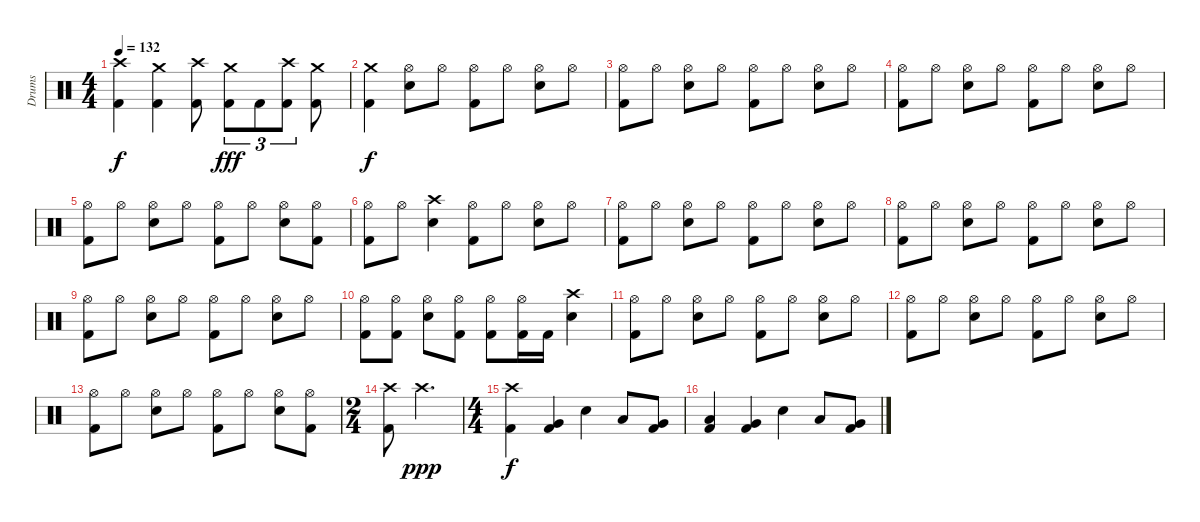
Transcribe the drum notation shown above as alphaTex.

\track ("Drums" "Drums") {instrument percussion}
\staff {score}
\articulation defaults
\ts (4 4)
\tempo 132
\clef neutral
\ks c
("Crash high (hit)" "Kick (hit) 2").4{dy f} ("Crash medium (hit)" "Kick (hit) 2").4 ("Crash high (hit)" "Kick (hit) 2").8 ("Crash medium (hit)" "Kick (hit) 2").8{tu (3 2) dy fff} "Kick (hit) 2".8{tu (3 2)} ("Crash high (hit)" "Kick (hit) 2").8{tu (3 2)} ("Crash medium (hit)" "Kick (hit) 2").8 |
("Crash medium (hit)" "Kick (hit) 2").4{dy f} ("Hi-Hat (open)" "Snare (hit) 2").8 "Hi-Hat (open)".8 ("Hi-Hat (open)" "Kick (hit) 2").8 "Hi-Hat (open)".8 ("Hi-Hat (open)" "Snare (hit) 2").8 "Hi-Hat (open)".8 |
("Hi-Hat (open)" "Kick (hit) 2").8 "Hi-Hat (open)".8 ("Hi-Hat (open)" "Snare (hit) 2").8 "Hi-Hat (open)".8 ("Hi-Hat (open)" "Kick (hit) 2").8 "Hi-Hat (open)".8 ("Hi-Hat (open)" "Snare (hit) 2").8 "Hi-Hat (open)".8 |
("Hi-Hat (open)" "Kick (hit) 2").8 "Hi-Hat (open)".8 ("Hi-Hat (open)" "Snare (hit) 2").8 "Hi-Hat (open)".8 ("Hi-Hat (open)" "Kick (hit) 2").8 "Hi-Hat (open)".8 ("Hi-Hat (open)" "Snare (hit) 2").8 "Hi-Hat (open)".8 |
("Hi-Hat (open)" "Kick (hit) 2").8 "Hi-Hat (open)".8 ("Hi-Hat (open)" "Snare (hit) 2").8 "Hi-Hat (open)".8 ("Hi-Hat (open)" "Kick (hit) 2").8 "Hi-Hat (open)".8 ("Hi-Hat (open)" "Snare (hit) 2").8 ("Hi-Hat (open)" "Kick (hit) 2").8 |
("Hi-Hat (open)" "Kick (hit) 2").8 "Hi-Hat (open)".8 ("Crash high (hit)" "Snare (hit) 2").4 ("Hi-Hat (open)" "Kick (hit) 2").8 "Hi-Hat (open)".8 ("Hi-Hat (open)" "Snare (hit) 2").8 "Hi-Hat (open)".8 |
("Hi-Hat (open)" "Kick (hit) 2").8 "Hi-Hat (open)".8 ("Hi-Hat (open)" "Snare (hit) 2").8 "Hi-Hat (open)".8 ("Hi-Hat (open)" "Kick (hit) 2").8 "Hi-Hat (open)".8 ("Hi-Hat (open)" "Snare (hit) 2").8 "Hi-Hat (open)".8 |
("Hi-Hat (open)" "Kick (hit) 2").8 "Hi-Hat (open)".8 ("Hi-Hat (open)" "Snare (hit) 2").8 "Hi-Hat (open)".8 ("Hi-Hat (open)" "Kick (hit) 2").8 "Hi-Hat (open)".8 ("Hi-Hat (open)" "Snare (hit) 2").8 "Hi-Hat (open)".8 |
("Hi-Hat (open)" "Kick (hit) 2").8 "Hi-Hat (open)".8 ("Hi-Hat (open)" "Snare (hit) 2").8 "Hi-Hat (open)".8 ("Hi-Hat (open)" "Kick (hit) 2").8 "Hi-Hat (open)".8 ("Hi-Hat (open)" "Snare (hit) 2").8 "Hi-Hat (open)".8 |
("Hi-Hat (open)" "Kick (hit) 2").8 ("Hi-Hat (open)" "Kick (hit) 2").8 ("Hi-Hat (open)" "Snare (hit) 2").8 ("Hi-Hat (open)" "Kick (hit) 2").8 ("Hi-Hat (open)" "Kick (hit) 2").8 ("Hi-Hat (open)" "Kick (hit) 2").16 "Kick (hit) 2".16 ("Crash high (hit)" "Snare (hit) 2").4 |
("Hi-Hat (open)" "Kick (hit) 2").8 "Hi-Hat (open)".8 ("Hi-Hat (open)" "Snare (hit) 2").8 "Hi-Hat (open)".8 ("Hi-Hat (open)" "Kick (hit) 2").8 "Hi-Hat (open)".8 ("Hi-Hat (open)" "Snare (hit) 2").8 "Hi-Hat (open)".8 |
("Hi-Hat (open)" "Kick (hit) 2").8 "Hi-Hat (open)".8 ("Hi-Hat (open)" "Snare (hit) 2").8 "Hi-Hat (open)".8 ("Hi-Hat (open)" "Kick (hit) 2").8 "Hi-Hat (open)".8 ("Hi-Hat (open)" "Snare (hit) 2").8 "Hi-Hat (open)".8 |
("Hi-Hat (open)" "Kick (hit) 2").8 "Hi-Hat (open)".8 ("Hi-Hat (open)" "Snare (hit) 2").8 "Hi-Hat (open)".8 ("Hi-Hat (open)" "Kick (hit) 2").8 "Hi-Hat (open)".8 ("Hi-Hat (open)" "Snare (hit) 2").8 ("Hi-Hat (open)" "Kick (hit) 2").8 |
\ts (2 4)
("Crash high (hit)" "Kick (hit) 2").8 "Crash high (hit)".4{d dy ppp} |
\ts (4 4)
("Crash high (hit)" "Kick (hit) 2").4{dy f} ("Very Low Tom (hit)" "Kick (hit) 2").4 "Snare (hit) 2".4 "Low Tom (hit)".8 ("Very Low Tom (hit)" "Kick (hit) 2").8 |
("Low Floor Tom (hit)" "Kick (hit) 2").4 ("Very Low Tom (hit)" "Kick (hit) 2").4 "Snare (hit) 2".4 "Low Tom (hit)".8 ("Very Low Tom (hit)" "Kick (hit) 2").8
